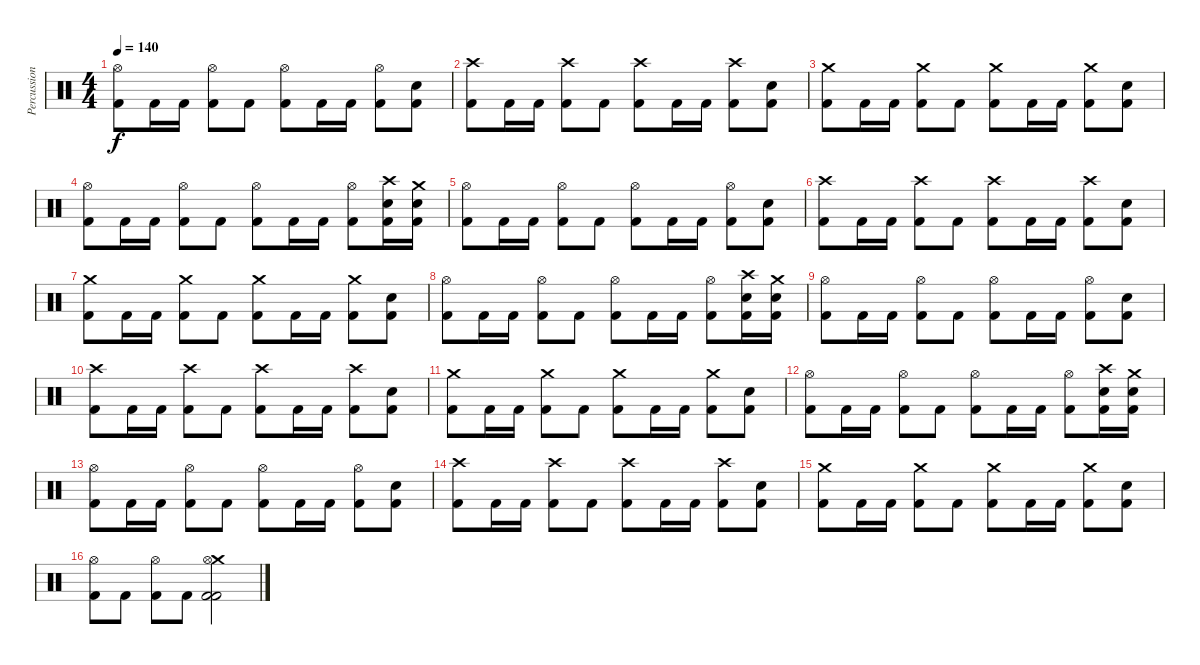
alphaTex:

\track ("Percussion" "Percussion") {instrument percussion}
\staff {score}
\articulation defaults
\ts (4 4)
\tempo 140
\clef neutral
\ks c
("Hi-Hat (open)" "Kick (hit) 2").8{dy f} "Kick (hit) 2".16 "Kick (hit) 2".16 ("Hi-Hat (open)" "Kick (hit) 2").8 "Kick (hit) 2".8 ("Hi-Hat (open)" "Kick (hit) 2").8 "Kick (hit) 2".16 "Kick (hit) 2".16 ("Hi-Hat (open)" "Kick (hit) 2").8 ("Snare (hit) 2" "Kick (hit) 2").8 |
("Crash high (hit)" "Kick (hit) 2").8 "Kick (hit) 2".16 "Kick (hit) 2".16 ("Crash high (hit)" "Kick (hit) 2").8 "Kick (hit) 2".8 ("Crash high (hit)" "Kick (hit) 2").8 "Kick (hit) 2".16 "Kick (hit) 2".16 ("Crash high (hit)" "Kick (hit) 2").8 ("Snare (hit) 2" "Kick (hit) 2").8 |
("Crash medium (hit)" "Kick (hit) 2").8 "Kick (hit) 2".16 "Kick (hit) 2".16 ("Crash medium (hit)" "Kick (hit) 2").8 "Kick (hit) 2".8 ("Crash medium (hit)" "Kick (hit) 2").8 "Kick (hit) 2".16 "Kick (hit) 2".16 ("Crash medium (hit)" "Kick (hit) 2").8 ("Snare (hit) 2" "Kick (hit) 2").8 |
("Hi-Hat (open)" "Kick (hit) 2").8 "Kick (hit) 2".16 "Kick (hit) 2".16 ("Hi-Hat (open)" "Kick (hit) 2").8 "Kick (hit) 2".8 ("Hi-Hat (open)" "Kick (hit) 2").8 "Kick (hit) 2".16 "Kick (hit) 2".16 ("Hi-Hat (open)" "Kick (hit) 2").8 ("Crash high (hit)" "Snare (hit) 2" "Kick (hit) 2").16 ("Crash medium (hit)" "Snare (hit) 2" "Kick (hit) 2").16 |
("Hi-Hat (open)" "Kick (hit) 2").8 "Kick (hit) 2".16 "Kick (hit) 2".16 ("Hi-Hat (open)" "Kick (hit) 2").8 "Kick (hit) 2".8 ("Hi-Hat (open)" "Kick (hit) 2").8 "Kick (hit) 2".16 "Kick (hit) 2".16 ("Hi-Hat (open)" "Kick (hit) 2").8 ("Snare (hit) 2" "Kick (hit) 2").8 |
("Crash high (hit)" "Kick (hit) 2").8 "Kick (hit) 2".16 "Kick (hit) 2".16 ("Crash high (hit)" "Kick (hit) 2").8 "Kick (hit) 2".8 ("Crash high (hit)" "Kick (hit) 2").8 "Kick (hit) 2".16 "Kick (hit) 2".16 ("Crash high (hit)" "Kick (hit) 2").8 ("Snare (hit) 2" "Kick (hit) 2").8 |
("Crash medium (hit)" "Kick (hit) 2").8 "Kick (hit) 2".16 "Kick (hit) 2".16 ("Crash medium (hit)" "Kick (hit) 2").8 "Kick (hit) 2".8 ("Crash medium (hit)" "Kick (hit) 2").8 "Kick (hit) 2".16 "Kick (hit) 2".16 ("Crash medium (hit)" "Kick (hit) 2").8 ("Snare (hit) 2" "Kick (hit) 2").8 |
("Hi-Hat (open)" "Kick (hit) 2").8 "Kick (hit) 2".16 "Kick (hit) 2".16 ("Hi-Hat (open)" "Kick (hit) 2").8 "Kick (hit) 2".8 ("Hi-Hat (open)" "Kick (hit) 2").8 "Kick (hit) 2".16 "Kick (hit) 2".16 ("Hi-Hat (open)" "Kick (hit) 2").8 ("Crash high (hit)" "Snare (hit) 2" "Kick (hit) 2").16 ("Crash medium (hit)" "Snare (hit) 2" "Kick (hit) 2").16 |
("Hi-Hat (open)" "Kick (hit) 2").8 "Kick (hit) 2".16 "Kick (hit) 2".16 ("Hi-Hat (open)" "Kick (hit) 2").8 "Kick (hit) 2".8 ("Hi-Hat (open)" "Kick (hit) 2").8 "Kick (hit) 2".16 "Kick (hit) 2".16 ("Hi-Hat (open)" "Kick (hit) 2").8 ("Snare (hit) 2" "Kick (hit) 2").8 |
("Crash high (hit)" "Kick (hit) 2").8 "Kick (hit) 2".16 "Kick (hit) 2".16 ("Crash high (hit)" "Kick (hit) 2").8 "Kick (hit) 2".8 ("Crash high (hit)" "Kick (hit) 2").8 "Kick (hit) 2".16 "Kick (hit) 2".16 ("Crash high (hit)" "Kick (hit) 2").8 ("Snare (hit) 2" "Kick (hit) 2").8 |
("Crash medium (hit)" "Kick (hit) 2").8 "Kick (hit) 2".16 "Kick (hit) 2".16 ("Crash medium (hit)" "Kick (hit) 2").8 "Kick (hit) 2".8 ("Crash medium (hit)" "Kick (hit) 2").8 "Kick (hit) 2".16 "Kick (hit) 2".16 ("Crash medium (hit)" "Kick (hit) 2").8 ("Snare (hit) 2" "Kick (hit) 2").8 |
("Hi-Hat (open)" "Kick (hit) 2").8 "Kick (hit) 2".16 "Kick (hit) 2".16 ("Hi-Hat (open)" "Kick (hit) 2").8 "Kick (hit) 2".8 ("Hi-Hat (open)" "Kick (hit) 2").8 "Kick (hit) 2".16 "Kick (hit) 2".16 ("Hi-Hat (open)" "Kick (hit) 2").8 ("Crash high (hit)" "Snare (hit) 2" "Kick (hit) 2").16 ("Crash medium (hit)" "Snare (hit) 2" "Kick (hit) 2").16 |
("Hi-Hat (open)" "Kick (hit) 2").8 "Kick (hit) 2".16 "Kick (hit) 2".16 ("Hi-Hat (open)" "Kick (hit) 2").8 "Kick (hit) 2".8 ("Hi-Hat (open)" "Kick (hit) 2").8 "Kick (hit) 2".16 "Kick (hit) 2".16 ("Hi-Hat (open)" "Kick (hit) 2").8 ("Snare (hit) 2" "Kick (hit) 2").8 |
("Crash high (hit)" "Kick (hit) 2").8 "Kick (hit) 2".16 "Kick (hit) 2".16 ("Crash high (hit)" "Kick (hit) 2").8 "Kick (hit) 2".8 ("Crash high (hit)" "Kick (hit) 2").8 "Kick (hit) 2".16 "Kick (hit) 2".16 ("Crash high (hit)" "Kick (hit) 2").8 ("Snare (hit) 2" "Kick (hit) 2").8 |
("Crash medium (hit)" "Kick (hit) 2").8 "Kick (hit) 2".16 "Kick (hit) 2".16 ("Crash medium (hit)" "Kick (hit) 2").8 "Kick (hit) 2".8 ("Crash medium (hit)" "Kick (hit) 2").8 "Kick (hit) 2".16 "Kick (hit) 2".16 ("Crash medium (hit)" "Kick (hit) 2").8 ("Snare (hit) 2" "Kick (hit) 2").8 |
("Hi-Hat (open)" "Kick (hit) 2").8 "Kick (hit) 2".8 ("Hi-Hat (open)" "Kick (hit) 2").8 "Kick (hit) 2".8 ("Crash medium (hit)" "Hi-Hat (open)" "Kick (hit) 2" "Kick (hit) 2").2
